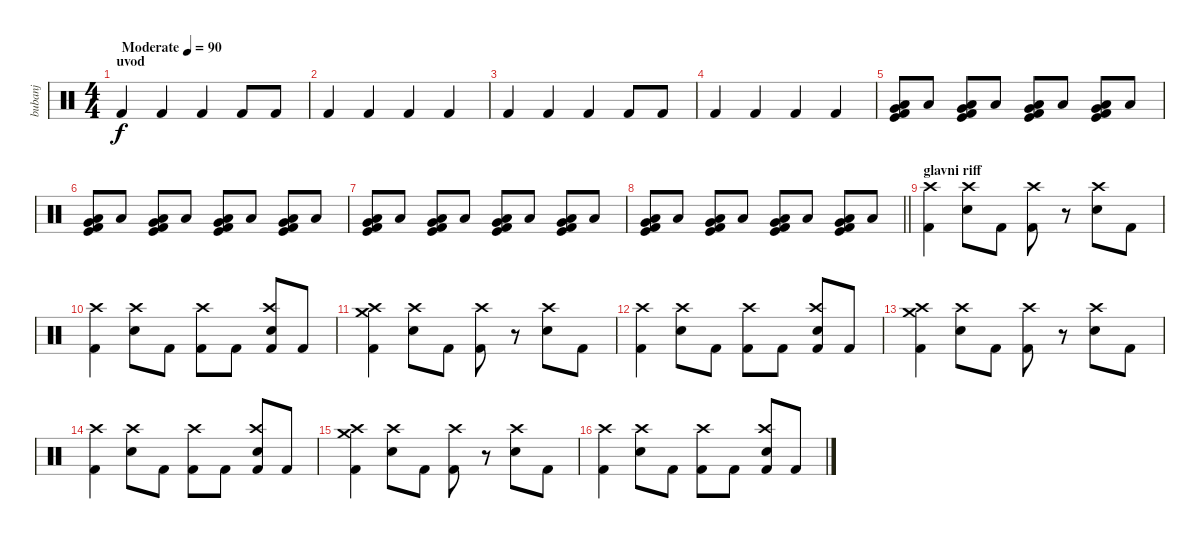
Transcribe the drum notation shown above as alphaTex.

\track ("bubanj" "bubanj") {instrument percussion}
\staff {score}
\articulation defaults
\ts (4 4)
\section ("" "uvod")
\tempo (90 "Moderate")
\clef neutral
\ks c "Kick (hit) 2".4{dy f} "Kick (hit) 2".4 "Kick (hit) 2".4 "Kick (hit) 2".8 "Kick (hit) 2".8
|
"Kick (hit) 2".4 "Kick (hit) 2".4 "Kick (hit) 2".4 "Kick (hit) 2".4 |
"Kick (hit) 2".4 "Kick (hit) 2".4 "Kick (hit) 2".4 "Kick (hit) 2".8 "Kick (hit) 2".8 |
"Kick (hit) 2".4 "Kick (hit) 2".4 "Kick (hit) 2".4 "Kick (hit) 2".4 |
("Very Low Tom (hit)" "Low Floor Tom (hit)" "Kick (hit)" "Kick (hit) 2").8 "Low Floor Tom (hit)".8 ("Very Low Tom (hit)" "Low Floor Tom (hit)" "Kick (hit)" "Kick (hit) 2").8 "Low Floor Tom (hit)".8 ("Very Low Tom (hit)" "Low Floor Tom (hit)" "Kick (hit)" "Kick (hit) 2").8 "Low Floor Tom (hit)".8 ("Very Low Tom (hit)" "Low Floor Tom (hit)" "Kick (hit)" "Kick (hit) 2").8 "Low Floor Tom (hit)".8 |
("Very Low Tom (hit)" "Low Floor Tom (hit)" "Kick (hit)" "Kick (hit) 2").8 "Low Floor Tom (hit)".8 ("Very Low Tom (hit)" "Low Floor Tom (hit)" "Kick (hit)" "Kick (hit) 2").8 "Low Floor Tom (hit)".8 ("Very Low Tom (hit)" "Low Floor Tom (hit)" "Kick (hit)" "Kick (hit) 2").8 "Low Floor Tom (hit)".8 ("Very Low Tom (hit)" "Low Floor Tom (hit)" "Kick (hit)" "Kick (hit) 2").8 "Low Floor Tom (hit)".8 |
("Very Low Tom (hit)" "Low Floor Tom (hit)" "Kick (hit)" "Kick (hit) 2").8 "Low Floor Tom (hit)".8 ("Very Low Tom (hit)" "Low Floor Tom (hit)" "Kick (hit)" "Kick (hit) 2").8 "Low Floor Tom (hit)".8 ("Very Low Tom (hit)" "Low Floor Tom (hit)" "Kick (hit)" "Kick (hit) 2").8 "Low Floor Tom (hit)".8 ("Very Low Tom (hit)" "Low Floor Tom (hit)" "Kick (hit)" "Kick (hit) 2").8 "Low Floor Tom (hit)".8 |
\barLineRight lightlight
("Very Low Tom (hit)" "Low Floor Tom (hit)" "Kick (hit)" "Kick (hit) 2").8 "Low Floor Tom (hit)".8 ("Very Low Tom (hit)" "Low Floor Tom (hit)" "Kick (hit)" "Kick (hit) 2").8 "Low Floor Tom (hit)".8 ("Very Low Tom (hit)" "Low Floor Tom (hit)" "Kick (hit)" "Kick (hit) 2").8 "Low Floor Tom (hit)".8 ("Very Low Tom (hit)" "Low Floor Tom (hit)" "Kick (hit)" "Kick (hit) 2").8 "Low Floor Tom (hit)".8 |
\section ("" "glavni riff")
("Crash high (hit)" "Kick (hit) 2").4 ("Crash high (hit)" "Electric Snare (hit)").8 "Kick (hit) 2".8 ("Crash high (hit)" "Kick (hit) 2").8 r.8 ("Crash high (hit)" "Electric Snare (hit)").8 "Kick (hit) 2".8 |
("Crash high (hit)" "Kick (hit) 2").4 ("Crash high (hit)" "Electric Snare (hit)").8 "Kick (hit) 2".8 ("Crash high (hit)" "Kick (hit) 2").8 "Kick (hit) 2".8 ("Crash high (hit)" "Electric Snare (hit)" "Kick (hit) 2").8 "Kick (hit) 2".8 |
("Crash medium (hit)" "Crash high (hit)" "Kick (hit) 2").4 ("Crash high (hit)" "Electric Snare (hit)").8 "Kick (hit) 2".8 ("Crash high (hit)" "Kick (hit) 2").8 r.8 ("Crash high (hit)" "Electric Snare (hit)").8 "Kick (hit) 2".8 |
("Crash high (hit)" "Kick (hit) 2").4 ("Crash high (hit)" "Electric Snare (hit)").8 "Kick (hit) 2".8 ("Crash high (hit)" "Kick (hit) 2").8 "Kick (hit) 2".8 ("Crash high (hit)" "Electric Snare (hit)" "Kick (hit) 2").8 "Kick (hit) 2".8 |
("Crash medium (hit)" "Crash high (hit)" "Kick (hit) 2").4 ("Crash high (hit)" "Electric Snare (hit)").8 "Kick (hit) 2".8 ("Crash high (hit)" "Kick (hit) 2").8 r.8 ("Crash high (hit)" "Electric Snare (hit)").8 "Kick (hit) 2".8 |
("Crash high (hit)" "Kick (hit) 2").4 ("Crash high (hit)" "Electric Snare (hit)").8 "Kick (hit) 2".8 ("Crash high (hit)" "Kick (hit) 2").8 "Kick (hit) 2".8 ("Crash high (hit)" "Electric Snare (hit)" "Kick (hit) 2").8 "Kick (hit) 2".8 |
("Crash medium (hit)" "Crash high (hit)" "Kick (hit) 2").4 ("Crash high (hit)" "Electric Snare (hit)").8 "Kick (hit) 2".8 ("Crash high (hit)" "Kick (hit) 2").8 r.8 ("Crash high (hit)" "Electric Snare (hit)").8 "Kick (hit) 2".8 |
("Crash high (hit)" "Kick (hit) 2").4 ("Crash high (hit)" "Electric Snare (hit)").8 "Kick (hit) 2".8 ("Crash high (hit)" "Kick (hit) 2").8 "Kick (hit) 2".8 ("Crash high (hit)" "Electric Snare (hit)" "Kick (hit) 2").8 "Kick (hit) 2".8
